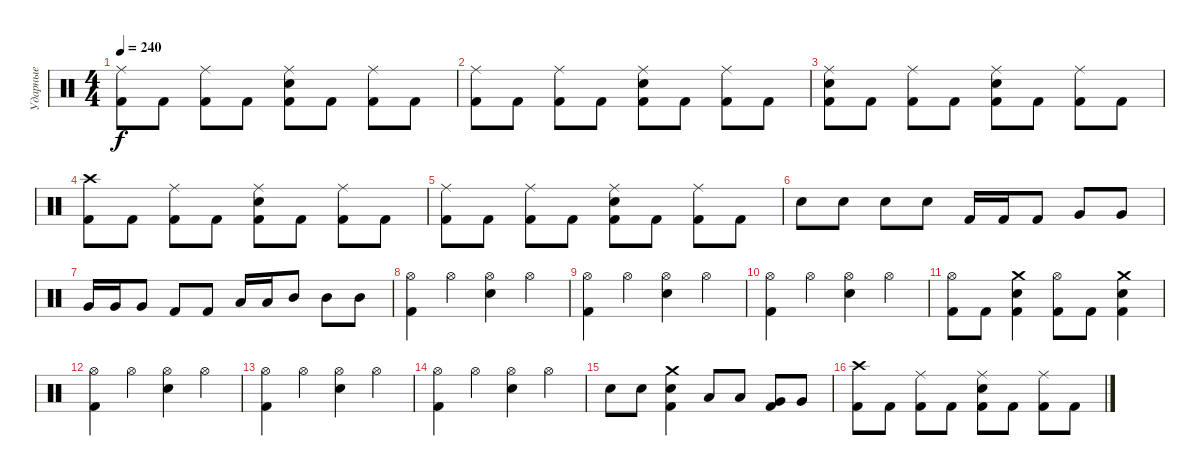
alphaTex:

\track ("Ударные" "Ударные") {instrument percussion}
\staff {score}
\articulation defaults
\ts (4 4)
\tempo 240
\clef neutral
\ks c
("Ride (middle)" "Kick (hit) 2").8{dy f} "Kick (hit) 2".8 ("Ride (middle)" "Kick (hit) 2").8 "Kick (hit) 2".8 ("Ride (middle)" "Snare (hit) 2" "Kick (hit) 2").8 "Kick (hit) 2".8 ("Ride (middle)" "Kick (hit) 2").8 "Kick (hit) 2".8 |
("Ride (middle)" "Kick (hit) 2").8 "Kick (hit) 2".8 ("Ride (middle)" "Kick (hit) 2").8 "Kick (hit) 2".8 ("Ride (middle)" "Snare (hit) 2" "Kick (hit) 2").8 "Kick (hit) 2".8 ("Ride (middle)" "Kick (hit) 2").8 "Kick (hit) 2".8 |
("Ride (middle)" "Snare (hit) 2" "Kick (hit) 2").8 "Kick (hit) 2".8 ("Ride (middle)" "Kick (hit) 2").8 "Kick (hit) 2".8 ("Ride (middle)" "Snare (hit) 2" "Kick (hit) 2").8 "Kick (hit) 2".8 ("Ride (middle)" "Kick (hit) 2").8 "Kick (hit) 2".8 |
("Crash high (hit)" "Kick (hit) 2").8 "Kick (hit) 2".8 ("Ride (middle)" "Kick (hit) 2").8 "Kick (hit) 2".8 ("Ride (middle)" "Snare (hit) 2" "Kick (hit) 2").8 "Kick (hit) 2".8 ("Ride (middle)" "Kick (hit) 2").8 "Kick (hit) 2".8 |
("Ride (middle)" "Kick (hit) 2").8 "Kick (hit) 2".8 ("Ride (middle)" "Kick (hit) 2").8 "Kick (hit) 2".8 ("Ride (middle)" "Snare (hit) 2" "Kick (hit) 2").8 "Kick (hit) 2".8 ("Ride (middle)" "Kick (hit) 2").8 "Kick (hit) 2".8 |
"Snare (hit) 2".8 "Snare (hit) 2".8 "Snare (hit) 2".8 "Snare (hit) 2".8 "Kick (hit) 2".16 "Kick (hit) 2".16 "Kick (hit) 2".8 "Very Low Tom (hit)".8 "Very Low Tom (hit)".8 |
"Very Low Tom (hit)".16 "Very Low Tom (hit)".16 "Very Low Tom (hit)".8 "Kick (hit) 2".8 "Kick (hit) 2".8 "Low Tom (hit)".16 "Low Tom (hit)".16 "Mid Tom (hit)".8 "Mid Tom (hit)".8 "Mid Tom (hit)".8 |
("Hi-Hat (open)" "Kick (hit) 2").4 "Hi-Hat (open)".4 ("Hi-Hat (open)" "Snare (hit) 2").4 "Hi-Hat (open)".4 |
("Hi-Hat (open)" "Kick (hit) 2").4 "Hi-Hat (open)".4 ("Hi-Hat (open)" "Snare (hit) 2").4 "Hi-Hat (open)".4 |
("Hi-Hat (open)" "Kick (hit) 2").4 "Hi-Hat (open)".4 ("Hi-Hat (open)" "Snare (hit) 2").4 "Hi-Hat (open)".4 |
("Hi-Hat (open)" "Kick (hit) 2").8 "Kick (hit) 2".8 ("Crash medium (hit)" "Snare (hit) 2" "Kick (hit) 2").4 ("Hi-Hat (open)" "Kick (hit) 2").8 "Kick (hit) 2".8 ("Crash medium (hit)" "Snare (hit) 2" "Kick (hit) 2").4 |
("Hi-Hat (open)" "Kick (hit) 2").4 "Hi-Hat (open)".4 ("Hi-Hat (open)" "Snare (hit) 2").4 "Hi-Hat (open)".4 |
("Hi-Hat (open)" "Kick (hit) 2").4 "Hi-Hat (open)".4 ("Hi-Hat (open)" "Snare (hit) 2").4 "Hi-Hat (open)".4 |
("Hi-Hat (open)" "Kick (hit) 2").4 "Hi-Hat (open)".4 ("Hi-Hat (open)" "Snare (hit) 2").4 "Hi-Hat (open)".4 |
"Snare (hit) 2".8 "Snare (hit) 2".8 ("Crash medium (hit)" "Snare (hit) 2" "Kick (hit) 2").4 "Low Tom (hit)".8 "Low Tom (hit)".8 ("Very Low Tom (hit)" "Kick (hit) 2").8 "Very Low Tom (hit)".8 |
("Crash high (hit)" "Kick (hit) 2").8 "Kick (hit) 2".8 ("Ride (middle)" "Kick (hit) 2").8 "Kick (hit) 2".8 ("Ride (middle)" "Snare (hit) 2" "Kick (hit) 2").8 "Kick (hit) 2".8 ("Ride (middle)" "Kick (hit) 2").8 "Kick (hit) 2".8
